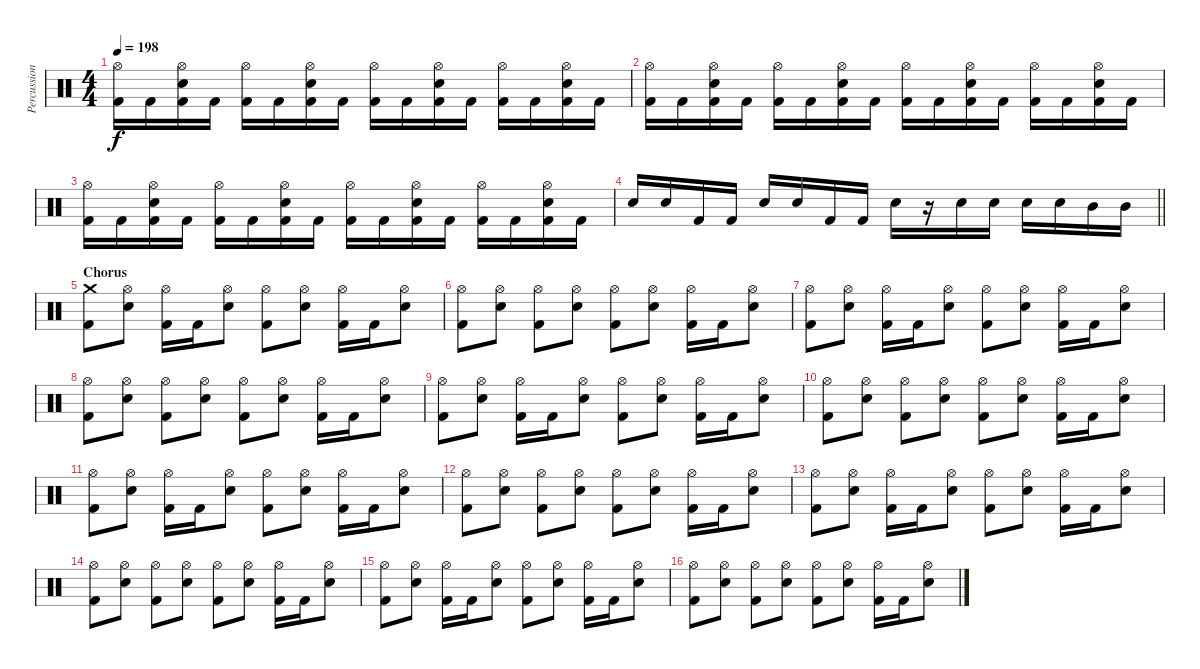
\track ("Percussion" "Percussion") {instrument percussion}
\staff {score}
\articulation defaults
\ts (4 4)
\tempo 198
\clef neutral
\ks c
("Hi-Hat (open)" "Kick (hit) 2").16{dy f} "Kick (hit) 2".16 ("Hi-Hat (open)" "Electric Snare (hit)" "Kick (hit) 2").16 "Kick (hit) 2".16 ("Hi-Hat (open)" "Kick (hit) 2").16 "Kick (hit) 2".16 ("Hi-Hat (open)" "Electric Snare (hit)" "Kick (hit) 2").16 "Kick (hit) 2".16 ("Hi-Hat (open)" "Kick (hit) 2").16 "Kick (hit) 2".16 ("Hi-Hat (open)" "Electric Snare (hit)" "Kick (hit) 2").16 "Kick (hit) 2".16 ("Hi-Hat (open)" "Kick (hit) 2").16 "Kick (hit) 2".16 ("Hi-Hat (open)" "Electric Snare (hit)" "Kick (hit) 2").16 "Kick (hit) 2".16 |
("Hi-Hat (open)" "Kick (hit) 2").16 "Kick (hit) 2".16 ("Hi-Hat (open)" "Electric Snare (hit)" "Kick (hit) 2").16 "Kick (hit) 2".16 ("Hi-Hat (open)" "Kick (hit) 2").16 "Kick (hit) 2".16 ("Hi-Hat (open)" "Electric Snare (hit)" "Kick (hit) 2").16 "Kick (hit) 2".16 ("Hi-Hat (open)" "Kick (hit) 2").16 "Kick (hit) 2".16 ("Hi-Hat (open)" "Electric Snare (hit)" "Kick (hit) 2").16 "Kick (hit) 2".16 ("Hi-Hat (open)" "Kick (hit) 2").16 "Kick (hit) 2".16 ("Hi-Hat (open)" "Electric Snare (hit)" "Kick (hit) 2").16 "Kick (hit) 2".16 |
("Hi-Hat (open)" "Kick (hit) 2").16 "Kick (hit) 2".16 ("Hi-Hat (open)" "Electric Snare (hit)" "Kick (hit) 2").16 "Kick (hit) 2".16 ("Hi-Hat (open)" "Kick (hit) 2").16 "Kick (hit) 2".16 ("Hi-Hat (open)" "Electric Snare (hit)" "Kick (hit) 2").16 "Kick (hit) 2".16 ("Hi-Hat (open)" "Kick (hit) 2").16 "Kick (hit) 2".16 ("Hi-Hat (open)" "Electric Snare (hit)" "Kick (hit) 2").16 "Kick (hit) 2".16 ("Hi-Hat (open)" "Kick (hit) 2").16 "Kick (hit) 2".16 ("Hi-Hat (open)" "Electric Snare (hit)" "Kick (hit) 2").16 "Kick (hit) 2".16 |
\barLineRight lightlight "Electric Snare (hit)".16 "Electric Snare (hit)".16 "Kick (hit) 2".16 "Kick (hit) 2".16 "Electric Snare (hit)".16 "Electric Snare (hit)".16 "Kick (hit) 2".16 "Kick (hit) 2".16 "Electric Snare (hit)".16
r.16 "Electric Snare (hit)".16 "Electric Snare (hit)".16 "Electric Snare (hit)".16 "Electric Snare (hit)".16 "Mid Tom (hit)".16 "Mid Tom (hit)".16 |
\section ("" "Chorus")
("Crash medium (hit)" "Kick (hit) 2").8 ("Hi-Hat (open)" "Electric Snare (hit)").8 ("Hi-Hat (open)" "Kick (hit) 2").16 "Kick (hit) 2".16 ("Hi-Hat (open)" "Electric Snare (hit)").8 ("Hi-Hat (open)" "Kick (hit) 2").8 ("Hi-Hat (open)" "Electric Snare (hit)").8 ("Hi-Hat (open)" "Kick (hit) 2").16 "Kick (hit) 2".16 ("Hi-Hat (open)" "Electric Snare (hit)").8 |
("Hi-Hat (open)" "Kick (hit) 2").8 ("Hi-Hat (open)" "Electric Snare (hit)").8 ("Hi-Hat (open)" "Kick (hit) 2").8 ("Hi-Hat (open)" "Electric Snare (hit)").8 ("Hi-Hat (open)" "Kick (hit) 2").8 ("Hi-Hat (open)" "Electric Snare (hit)").8 ("Hi-Hat (open)" "Kick (hit) 2").16 "Kick (hit) 2".16 ("Hi-Hat (open)" "Electric Snare (hit)").8 |
("Hi-Hat (open)" "Kick (hit) 2").8 ("Hi-Hat (open)" "Electric Snare (hit)").8 ("Hi-Hat (open)" "Kick (hit) 2").16 "Kick (hit) 2".16 ("Hi-Hat (open)" "Electric Snare (hit)").8 ("Hi-Hat (open)" "Kick (hit) 2").8 ("Hi-Hat (open)" "Electric Snare (hit)").8 ("Hi-Hat (open)" "Kick (hit) 2").16 "Kick (hit) 2".16 ("Hi-Hat (open)" "Electric Snare (hit)").8 |
("Hi-Hat (open)" "Kick (hit) 2").8 ("Hi-Hat (open)" "Electric Snare (hit)").8 ("Hi-Hat (open)" "Kick (hit) 2").8 ("Hi-Hat (open)" "Electric Snare (hit)").8 ("Hi-Hat (open)" "Kick (hit) 2").8 ("Hi-Hat (open)" "Electric Snare (hit)").8 ("Hi-Hat (open)" "Kick (hit) 2").16 "Kick (hit) 2".16 ("Hi-Hat (open)" "Electric Snare (hit)").8 |
("Hi-Hat (open)" "Kick (hit) 2").8 ("Hi-Hat (open)" "Electric Snare (hit)").8 ("Hi-Hat (open)" "Kick (hit) 2").16 "Kick (hit) 2".16 ("Hi-Hat (open)" "Electric Snare (hit)").8 ("Hi-Hat (open)" "Kick (hit) 2").8 ("Hi-Hat (open)" "Electric Snare (hit)").8 ("Hi-Hat (open)" "Kick (hit) 2").16 "Kick (hit) 2".16 ("Hi-Hat (open)" "Electric Snare (hit)").8 |
("Hi-Hat (open)" "Kick (hit) 2").8 ("Hi-Hat (open)" "Electric Snare (hit)").8 ("Hi-Hat (open)" "Kick (hit) 2").8 ("Hi-Hat (open)" "Electric Snare (hit)").8 ("Hi-Hat (open)" "Kick (hit) 2").8 ("Hi-Hat (open)" "Electric Snare (hit)").8 ("Hi-Hat (open)" "Kick (hit) 2").16 "Kick (hit) 2".16 ("Hi-Hat (open)" "Electric Snare (hit)").8 |
("Hi-Hat (open)" "Kick (hit) 2").8 ("Hi-Hat (open)" "Electric Snare (hit)").8 ("Hi-Hat (open)" "Kick (hit) 2").16 "Kick (hit) 2".16 ("Hi-Hat (open)" "Electric Snare (hit)").8 ("Hi-Hat (open)" "Kick (hit) 2").8 ("Hi-Hat (open)" "Electric Snare (hit)").8 ("Hi-Hat (open)" "Kick (hit) 2").16 "Kick (hit) 2".16 ("Hi-Hat (open)" "Electric Snare (hit)").8 |
("Hi-Hat (open)" "Kick (hit) 2").8 ("Hi-Hat (open)" "Electric Snare (hit)").8 ("Hi-Hat (open)" "Kick (hit) 2").8 ("Hi-Hat (open)" "Electric Snare (hit)").8 ("Hi-Hat (open)" "Kick (hit) 2").8 ("Hi-Hat (open)" "Electric Snare (hit)").8 ("Hi-Hat (open)" "Kick (hit) 2").16 "Kick (hit) 2".16 ("Hi-Hat (open)" "Electric Snare (hit)").8 |
("Hi-Hat (open)" "Kick (hit) 2").8 ("Hi-Hat (open)" "Electric Snare (hit)").8 ("Hi-Hat (open)" "Kick (hit) 2").16 "Kick (hit) 2".16 ("Hi-Hat (open)" "Electric Snare (hit)").8 ("Hi-Hat (open)" "Kick (hit) 2").8 ("Hi-Hat (open)" "Electric Snare (hit)").8 ("Hi-Hat (open)" "Kick (hit) 2").16 "Kick (hit) 2".16 ("Hi-Hat (open)" "Electric Snare (hit)").8 |
("Hi-Hat (open)" "Kick (hit) 2").8 ("Hi-Hat (open)" "Electric Snare (hit)").8 ("Hi-Hat (open)" "Kick (hit) 2").8 ("Hi-Hat (open)" "Electric Snare (hit)").8 ("Hi-Hat (open)" "Kick (hit) 2").8 ("Hi-Hat (open)" "Electric Snare (hit)").8 ("Hi-Hat (open)" "Kick (hit) 2").16 "Kick (hit) 2".16 ("Hi-Hat (open)" "Electric Snare (hit)").8 |
("Hi-Hat (open)" "Kick (hit) 2").8 ("Hi-Hat (open)" "Electric Snare (hit)").8 ("Hi-Hat (open)" "Kick (hit) 2").16 "Kick (hit) 2".16 ("Hi-Hat (open)" "Electric Snare (hit)").8 ("Hi-Hat (open)" "Kick (hit) 2").8 ("Hi-Hat (open)" "Electric Snare (hit)").8 ("Hi-Hat (open)" "Kick (hit) 2").16 "Kick (hit) 2".16 ("Hi-Hat (open)" "Electric Snare (hit)").8 |
("Hi-Hat (open)" "Kick (hit) 2").8 ("Hi-Hat (open)" "Electric Snare (hit)").8 ("Hi-Hat (open)" "Kick (hit) 2").8 ("Hi-Hat (open)" "Electric Snare (hit)").8 ("Hi-Hat (open)" "Kick (hit) 2").8 ("Hi-Hat (open)" "Electric Snare (hit)").8 ("Hi-Hat (open)" "Kick (hit) 2").16 "Kick (hit) 2".16 ("Hi-Hat (open)" "Electric Snare (hit)").8
